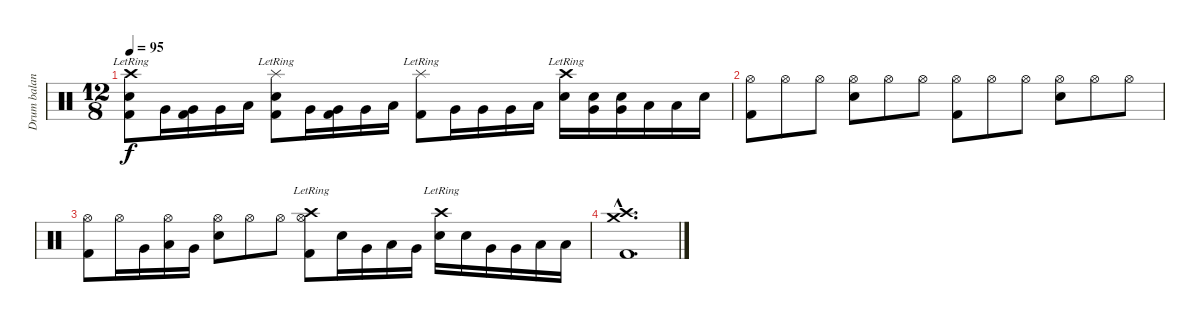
\track ("Drum balance help" "Drum balan") {instrument percussion}
\staff {score}
\articulation defaults
\ts (12 8)
\tempo 95
\clef neutral
\ks c
("Kick (hit) 2" "Snare (hit) 2" "Crash high (hit)"{lr}).8{dy f} "Very Low Tom (hit)".16 ("Kick (hit) 2" "Very Low Tom (hit)").16 "Very Low Tom (hit)".16 "Low Tom (hit)".16 ("Kick (hit) 2" "Snare (hit) 2" "Splash (hit)"{lr}).8 "Very Low Tom (hit)".16 ("Kick (hit) 2" "Very Low Tom (hit)").16 "Very Low Tom (hit)".16 "Low Tom (hit)".16 ("Kick (hit) 2" "Splash (hit)"{lr}).8 "Very Low Tom (hit)".16 "Very Low Tom (hit)".16 "Very Low Tom (hit)".16 "Low Tom (hit)".16 ("Snare (hit) 2" "Crash high (hit)"{lr}).16 ("Snare (hit) 2" "Very Low Tom (hit)").16 ("Snare (hit) 2" "Very Low Tom (hit)").16 "Low Tom (hit)".16 "Low Tom (hit)".16 "Snare (hit) 2".16 |
("Kick (hit) 2" "Hi-Hat (open)").8 "Hi-Hat (open)".8 "Hi-Hat (open)".8 ("Snare (hit) 2" "Hi-Hat (open)").8 "Hi-Hat (open)".8 "Hi-Hat (open)".8 ("Kick (hit) 2" "Hi-Hat (open)").8 "Hi-Hat (open)".8 "Hi-Hat (open)".8 ("Snare (hit) 2" "Hi-Hat (open)").8 "Hi-Hat (open)".8 "Hi-Hat (open)".8 |
("Kick (hit) 2" "Hi-Hat (open)").8 "Hi-Hat (open)".16 "Very Low Tom (hit)".16 ("Hi-Hat (open)" "Low Tom (hit)").16 "Very Low Tom (hit)".16 ("Snare (hit) 2" "Hi-Hat (open)").8 "Hi-Hat (open)".8 "Hi-Hat (open)".8 ("Kick (hit) 2" "Hi-Hat (open)" "Crash high (hit)"{lr}).8 "Snare (hit) 2".16 "Very Low Tom (hit)".16 "Low Tom (hit)".16 "Very Low Tom (hit)".16 ("Snare (hit) 2" "Crash high (hit)"{lr}).16 "Snare (hit) 2".16 "Very Low Tom (hit)".16 "Very Low Tom (hit)".16 "Low Tom (hit)".16 "Low Tom (hit)".16 |
("Kick (hit) 2"{hac} "Crash medium (hit)"{hac} "Crash high (hit)"{hac}).1{d}
